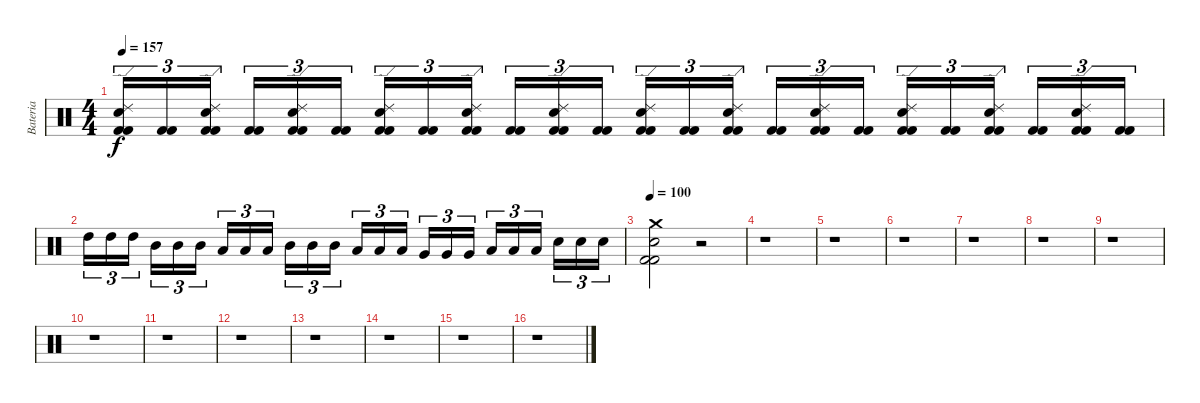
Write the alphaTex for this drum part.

\track ("Bateria" "Bateria") {instrument percussion}
\staff {score}
\articulation defaults
\ts (4 4)
\tempo 157
\clef neutral
\ks c
("Kick (hit) 2" "Kick (hit) 2" "Snare (hit) 2" "Ride (edge) 2").16{tu (3 2) dy f} ("Kick (hit) 2" "Kick (hit) 2").16{tu (3 2)} ("Kick (hit) 2" "Kick (hit) 2" "Snare (hit) 2" "Ride (edge) 2").16{tu (3 2)} ("Kick (hit) 2" "Kick (hit) 2").16{tu (3 2)} ("Kick (hit) 2" "Kick (hit) 2" "Snare (hit) 2" "Ride (edge) 2").16{tu (3 2)} ("Kick (hit) 2" "Kick (hit) 2").16{tu (3 2)} ("Kick (hit) 2" "Kick (hit) 2" "Snare (hit) 2" "Ride (edge) 2").16{tu (3 2)} ("Kick (hit) 2" "Kick (hit) 2").16{tu (3 2)} ("Kick (hit) 2" "Kick (hit) 2" "Snare (hit) 2" "Ride (edge) 2").16{tu (3 2)} ("Kick (hit) 2" "Kick (hit) 2").16{tu (3 2)} ("Kick (hit) 2" "Kick (hit) 2" "Snare (hit) 2" "Ride (edge) 2").16{tu (3 2)} ("Kick (hit) 2" "Kick (hit) 2").16{tu (3 2)} ("Kick (hit) 2" "Kick (hit) 2" "Snare (hit) 2" "Ride (edge) 2").16{tu (3 2)} ("Kick (hit) 2" "Kick (hit) 2").16{tu (3 2)} ("Kick (hit) 2" "Kick (hit) 2" "Snare (hit) 2" "Ride (edge) 2").16{tu (3 2)} ("Kick (hit) 2" "Kick (hit) 2").16{tu (3 2)} ("Kick (hit) 2" "Kick (hit) 2" "Snare (hit) 2" "Ride (edge) 2").16{tu (3 2)} ("Kick (hit) 2" "Kick (hit) 2").16{tu (3 2)} ("Kick (hit) 2" "Kick (hit) 2" "Snare (hit) 2" "Ride (edge) 2").16{tu (3 2)} ("Kick (hit) 2" "Kick (hit) 2").16{tu (3 2)} ("Kick (hit) 2" "Kick (hit) 2" "Snare (hit) 2" "Ride (edge) 2").16{tu (3 2)} ("Kick (hit) 2" "Kick (hit) 2").16{tu (3 2)} ("Kick (hit) 2" "Kick (hit) 2" "Snare (hit) 2" "Ride (edge) 2").16{tu (3 2)} ("Kick (hit) 2" "Kick (hit) 2").16{tu (3 2)} |
"High Tom (hit)".16{tu (3 2)} "High Tom (hit)".16{tu (3 2)} "High Tom (hit)".16{tu (3 2)} "Mid Tom (hit)".16{tu (3 2)} "Mid Tom (hit)".16{tu (3 2)} "Mid Tom (hit)".16{tu (3 2)} "Low Tom (hit)".16{tu (3 2)} "Low Tom (hit)".16{tu (3 2)} "Low Tom (hit)".16{tu (3 2)} "Mid Tom (hit)".16{tu (3 2)} "Mid Tom (hit)".16{tu (3 2)} "Mid Tom (hit)".16{tu (3 2)} "Low Tom (hit)".16{tu (3 2)} "Low Tom (hit)".16{tu (3 2)} "Low Tom (hit)".16{tu (3 2)} "Very Low Tom (hit)".16{tu (3 2)} "Very Low Tom (hit)".16{tu (3 2)} "Very Low Tom (hit)".16{tu (3 2)} "Low Tom (hit)".16{tu (3 2)} "Low Tom (hit)".16{tu (3 2)} "Low Tom (hit)".16{tu (3 2)} "Snare (hit) 2".16{tu (3 2)} "Snare (hit) 2".16{tu (3 2)} "Snare (hit) 2".16{tu (3 2)} |
\tempo 100
("Kick (hit) 2" "Kick (hit) 2" "Snare (hit) 2" "Crash medium (hit)").2 r.2 |
r.1 |
r.1 |
r.1 |
r.1 |
r.1 |
r.1 |
r.1 |
r.1 |
r.1 |
r.1 |
r.1 |
r.1 |
r.1
